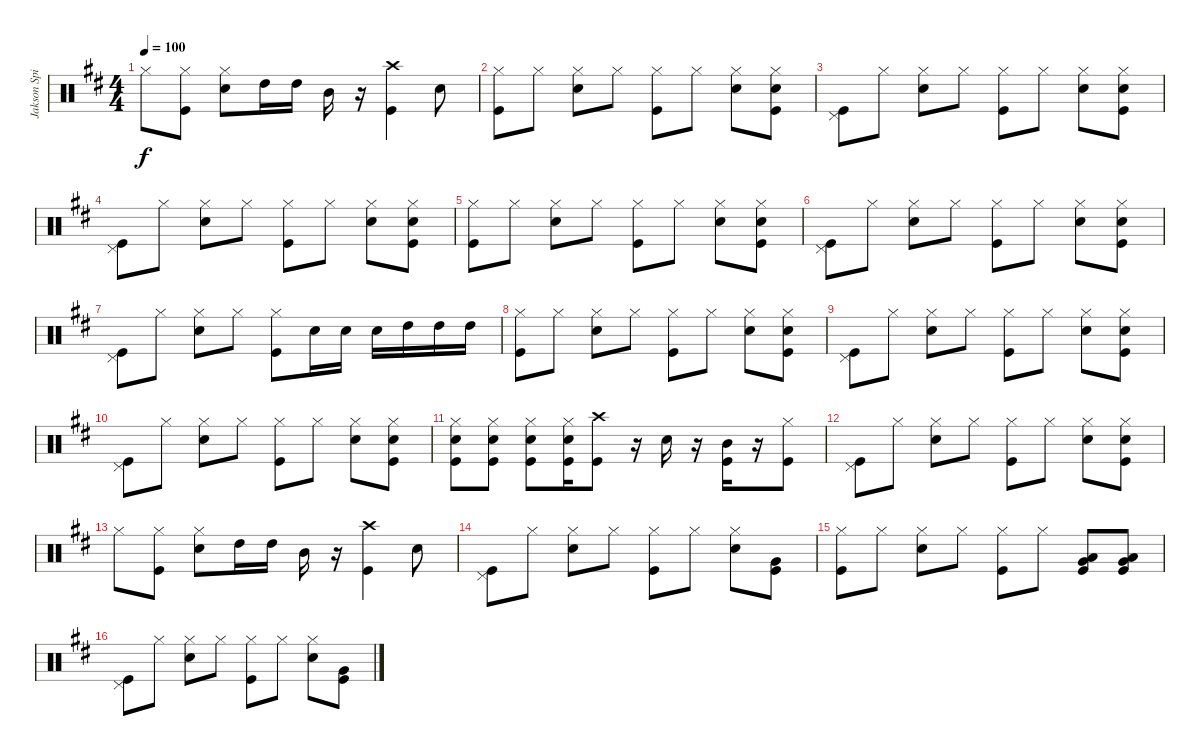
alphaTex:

\track ("Jakson Spires Drums" "Jakson Spi") {instrument percussion}
\staff {score}
\articulation defaults
\ts (4 4)
\tempo 100
\clef neutral
\ks d "Hi-Hat (closed)".8{dy f}
("Hi-Hat (closed)" "Kick (hit)").8 ("Hi-Hat (closed)" "Snare (hit) 2").8 "High Tom (hit)".16 "High Tom (hit)".16 "Mid Tom (hit)".16 r.16 ("Crash high (hit)" "Kick (hit)").4 "Snare (hit) 2".8 |
("Hi-Hat (closed)" "Kick (hit)").8 "Hi-Hat (closed)".8 ("Hi-Hat (closed)" "Snare (hit) 2").8 "Hi-Hat (closed)".8 ("Hi-Hat (closed)" "Kick (hit)").8 "Hi-Hat (closed)".8 ("Hi-Hat (closed)" "Snare (hit) 2").8 ("Hi-Hat (closed)" "Snare (hit) 2" "Kick (hit)").8 |
("Pedal Hi-Hat (hit)" "Kick (hit)").8 "Hi-Hat (closed)".8 ("Hi-Hat (closed)" "Snare (hit) 2").8 "Hi-Hat (closed)".8 ("Hi-Hat (closed)" "Kick (hit)").8 "Hi-Hat (closed)".8 ("Hi-Hat (closed)" "Snare (hit) 2").8 ("Hi-Hat (closed)" "Snare (hit) 2" "Kick (hit)").8 |
("Pedal Hi-Hat (hit)" "Kick (hit)").8 "Hi-Hat (closed)".8 ("Hi-Hat (closed)" "Snare (hit) 2").8 "Hi-Hat (closed)".8 ("Hi-Hat (closed)" "Kick (hit)").8 "Hi-Hat (closed)".8 ("Hi-Hat (closed)" "Snare (hit) 2").8 ("Hi-Hat (closed)" "Snare (hit) 2" "Kick (hit)").8 |
("Hi-Hat (closed)" "Kick (hit)").8 "Hi-Hat (closed)".8 ("Hi-Hat (closed)" "Snare (hit) 2").8 "Hi-Hat (closed)".8 ("Hi-Hat (closed)" "Kick (hit)").8 "Hi-Hat (closed)".8 ("Hi-Hat (closed)" "Snare (hit) 2").8 ("Hi-Hat (closed)" "Snare (hit) 2" "Kick (hit)").8 |
("Pedal Hi-Hat (hit)" "Kick (hit)").8 "Hi-Hat (closed)".8 ("Hi-Hat (closed)" "Snare (hit) 2").8 "Hi-Hat (closed)".8 ("Hi-Hat (closed)" "Kick (hit)").8 "Hi-Hat (closed)".8 ("Hi-Hat (closed)" "Snare (hit) 2").8 ("Hi-Hat (closed)" "Snare (hit) 2" "Kick (hit)").8 |
("Pedal Hi-Hat (hit)" "Kick (hit)").8 "Hi-Hat (closed)".8 ("Hi-Hat (closed)" "Snare (hit) 2").8 "Hi-Hat (closed)".8 ("Hi-Hat (closed)" "Kick (hit)").8 "Snare (hit) 2".16 "Snare (hit) 2".16 "Snare (hit) 2".16 "High Tom (hit)".16 "High Tom (hit)".16 "High Tom (hit)".16 |
("Hi-Hat (closed)" "Kick (hit)").8 "Hi-Hat (closed)".8 ("Hi-Hat (closed)" "Snare (hit) 2").8 "Hi-Hat (closed)".8 ("Hi-Hat (closed)" "Kick (hit)").8 "Hi-Hat (closed)".8 ("Hi-Hat (closed)" "Snare (hit) 2").8 ("Hi-Hat (closed)" "Snare (hit) 2" "Kick (hit)").8 |
("Pedal Hi-Hat (hit)" "Kick (hit)").8 "Hi-Hat (closed)".8 ("Hi-Hat (closed)" "Snare (hit) 2").8 "Hi-Hat (closed)".8 ("Hi-Hat (closed)" "Kick (hit)").8 "Hi-Hat (closed)".8 ("Hi-Hat (closed)" "Snare (hit) 2").8 ("Hi-Hat (closed)" "Snare (hit) 2" "Kick (hit)").8 |
("Pedal Hi-Hat (hit)" "Kick (hit)").8 "Hi-Hat (closed)".8 ("Hi-Hat (closed)" "Snare (hit) 2").8 "Hi-Hat (closed)".8 ("Hi-Hat (closed)" "Kick (hit)").8 "Hi-Hat (closed)".8 ("Hi-Hat (closed)" "Snare (hit) 2").8 ("Hi-Hat (closed)" "Snare (hit) 2" "Kick (hit)").8 |
("Hi-Hat (closed)" "Snare (hit) 2" "Kick (hit)").8 ("Hi-Hat (closed)" "Snare (hit) 2" "Kick (hit)").8 ("Hi-Hat (closed)" "Snare (hit) 2" "Kick (hit)").8 ("Hi-Hat (closed)" "Snare (hit) 2" "Kick (hit)").16 ("Crash high (hit)" "Kick (hit)").8 r.16 "Snare (hit) 2".16 r.16 ("Mid Tom (hit)" "Kick (hit)").16 r.16 ("Hi-Hat (closed)" "Kick (hit)").8 |
("Pedal Hi-Hat (hit)" "Kick (hit)").8 "Hi-Hat (closed)".8 ("Hi-Hat (closed)" "Snare (hit) 2").8 "Hi-Hat (closed)".8 ("Hi-Hat (closed)" "Kick (hit)").8 "Hi-Hat (closed)".8 ("Hi-Hat (closed)" "Snare (hit) 2").8 ("Hi-Hat (closed)" "Snare (hit) 2" "Kick (hit)").8 |
"Hi-Hat (closed)".8 ("Hi-Hat (closed)" "Kick (hit)").8 ("Hi-Hat (closed)" "Snare (hit) 2").8 "High Tom (hit)".16 "High Tom (hit)".16 "Mid Tom (hit)".16 r.16 ("Crash high (hit)" "Kick (hit)").4 "Snare (hit) 2".8 |
("Pedal Hi-Hat (hit)" "Kick (hit)").8 "Hi-Hat (closed)".8 ("Hi-Hat (closed)" "Snare (hit) 2").8 "Hi-Hat (closed)".8 ("Hi-Hat (closed)" "Kick (hit)").8 "Hi-Hat (closed)".8 ("Hi-Hat (closed)" "Snare (hit) 2").8 ("Very Low Tom (hit)" "Kick (hit)").8 |
("Hi-Hat (closed)" "Kick (hit)").8 "Hi-Hat (closed)".8 ("Hi-Hat (closed)" "Snare (hit) 2").8 "Hi-Hat (closed)".8 ("Hi-Hat (closed)" "Kick (hit)").8 "Hi-Hat (closed)".8 ("Very Low Tom (hit)" "Low Tom (hit)" "Kick (hit)").8 ("Very Low Tom (hit)" "Low Tom (hit)" "Kick (hit)").8 |
("Pedal Hi-Hat (hit)" "Kick (hit)").8 "Hi-Hat (closed)".8 ("Hi-Hat (closed)" "Snare (hit) 2").8 "Hi-Hat (closed)".8 ("Hi-Hat (closed)" "Kick (hit)").8 "Hi-Hat (closed)".8 ("Hi-Hat (closed)" "Snare (hit) 2").8 ("Very Low Tom (hit)" "Kick (hit)").8
